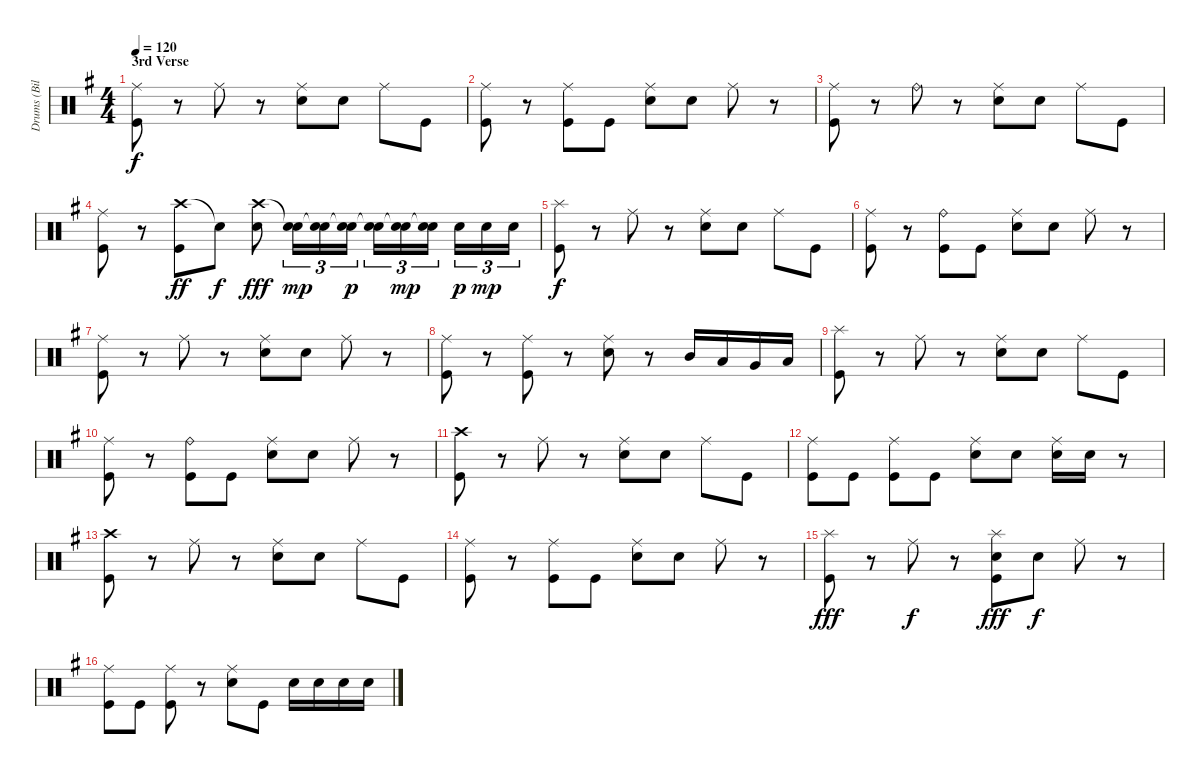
\track ("Drums (Bill Ward)" "Drums (Bil") {instrument percussion}
\staff {score}
\articulation defaults
\ts (4 4)
\section ("" "3rd Verse")
\tempo 120
\clef neutral
\ks g
("Ride (middle)" "Kick (hit)").8{dy f} r.8 "Ride (middle)".8 r.8 ("Ride (middle)" "Electric Snare (hit)").8 "Electric Snare (hit)".8 "Ride (middle)".8 "Kick (hit)".8 |
("Ride (middle)" "Kick (hit)").8 r.8 ("Ride (middle)" "Kick (hit)").8 "Kick (hit)".8 ("Ride (middle)" "Electric Snare (hit)").8 "Electric Snare (hit)".8 "Ride (middle)".8 r.8 |
("Ride (middle)" "Kick (hit)").8 r.8 "Ride (bell)".8 r.8 ("Ride (middle)" "Electric Snare (hit)").8 "Electric Snare (hit)".8 "Ride (middle)".8 "Kick (hit)".8 |
("Ride (middle)" "Kick (hit)").8 r.8 ("Crash high (hit)" "Kick (hit)").8{dy ff} "Snare (hit)"{t}.8{dy f} ("Crash high (hit)" "Electric Snare (hit)").8{dy fff} ("Snare (hit)"{t} "Electric Snare (hit)").16{tu (3 2) dy mp} ("Snare (hit)"{t} "Electric Snare (hit)").16{tu (3 2)} ("Snare (hit)"{t} "Electric Snare (hit)").16{tu (3 2) dy p} ("Snare (hit)"{t} "Electric Snare (hit)").16{tu (3 2)} ("Snare (hit)"{t} "Electric Snare (hit)").16{tu (3 2) dy mp} ("Snare (hit)"{t} "Electric Snare (hit)").16{tu (3 2)} "Electric Snare (hit)".16{tu (3 2) dy p} "Electric Snare (hit)".16{tu (3 2) dy mp} "Electric Snare (hit)".16{tu (3 2)} |
("Splash (hit)" "Kick (hit)").8{dy f} r.8 "Ride (middle)".8 r.8 ("Ride (middle)" "Electric Snare (hit)").8 "Electric Snare (hit)".8 "Ride (middle)".8 "Kick (hit)".8 |
("Ride (middle)" "Kick (hit)").8 r.8 ("Ride (bell)" "Kick (hit)").8 "Kick (hit)".8 ("Ride (middle)" "Electric Snare (hit)").8 "Electric Snare (hit)".8 "Ride (middle)".8 r.8 |
("Ride (middle)" "Kick (hit)").8 r.8 "Ride (middle)".8 r.8 ("Ride (middle)" "Electric Snare (hit)").8 "Electric Snare (hit)".8 "Ride (middle)".8 r.8 |
("Ride (middle)" "Kick (hit)").8 r.8 ("Ride (middle)" "Kick (hit)").8 r.8 ("Ride (middle)" "Electric Snare (hit)").8 r.8 "Mid Tom (hit)".16 "Low Tom (hit)".16 "Very Low Tom (hit)".16 "Low Floor Tom (hit)".16 |
("Splash (hit)" "Kick (hit)").8 r.8 "Ride (middle)".8 r.8 ("Ride (middle)" "Electric Snare (hit)").8 "Electric Snare (hit)".8 "Ride (middle)".8 "Kick (hit)".8 |
("Ride (middle)" "Kick (hit)").8 r.8 ("Ride (bell)" "Kick (hit)").8 "Kick (hit)".8 ("Ride (middle)" "Electric Snare (hit)").8 "Electric Snare (hit)".8 "Ride (middle)".8 r.8 |
("Crash high (hit)" "Kick (hit)").8 r.8 "Ride (middle)".8 r.8 ("Ride (middle)" "Electric Snare (hit)").8 "Electric Snare (hit)".8 "Ride (middle)".8 "Kick (hit)".8 |
("Ride (middle)" "Kick (hit)").8 "Kick (hit)".8 ("Ride (middle)" "Kick (hit)").8 "Kick (hit)".8 ("Ride (middle)" "Electric Snare (hit)").8 "Electric Snare (hit)".8 ("Ride (middle)" "Electric Snare (hit)").16 "Electric Snare (hit)".16 r.8 |
("Crash high (hit)" "Kick (hit)").8 r.8 "Ride (middle)".8 r.8 ("Ride (middle)" "Electric Snare (hit)").8 "Electric Snare (hit)".8 "Ride (middle)".8 "Kick (hit)".8 |
("Ride (middle)" "Kick (hit)").8 r.8 ("Ride (middle)" "Kick (hit)").8 "Kick (hit)".8 ("Ride (middle)" "Electric Snare (hit)").8 "Electric Snare (hit)".8 "Ride (middle)".8 r.8 |
("Splash (hit)" "Kick (hit)").8{dy fff} r.8 "Ride (middle)".8{dy f} r.8 ("Splash (hit)" "Electric Snare (hit)" "Kick (hit)").8{dy fff} "Electric Snare (hit)".8{dy f} "Ride (middle)".8 r.8 |
("Ride (middle)" "Kick (hit)").8 "Kick (hit)".8 ("Ride (middle)" "Kick (hit)").8 r.8 ("Ride (middle)" "Electric Snare (hit)").8 "Kick (hit)".8 "Electric Snare (hit)".16 "Electric Snare (hit)".16 "Electric Snare (hit)".16 "Electric Snare (hit)".16
